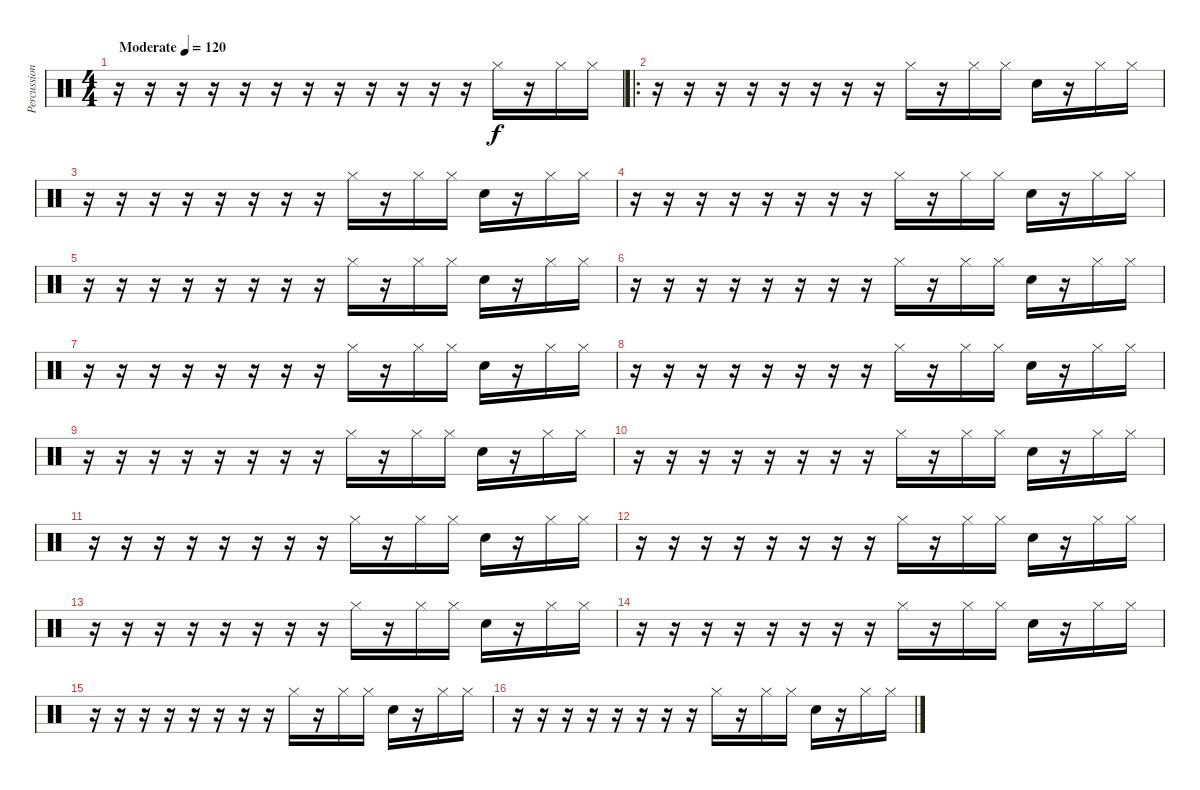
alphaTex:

\track ("Percussion" "Percussion") {instrument percussion bank 115}
\staff {score}
\articulation defaults
\ts (4 4)
\tempo (120 "Moderate")
\clef neutral
\ks c
r.16{dy f} r.16 r.16 r.16 r.16 r.16 r.16 r.16 r.16 r.16 r.16 r.16 "Hi-Hat (closed)".16 r.16 "Hi-Hat (closed)".16 "Hi-Hat (closed)".16 |
\ro
r.16 r.16 r.16 r.16 r.16 r.16 r.16 r.16 "Hi-Hat (closed)".16 r.16 "Hi-Hat (closed)".16 "Hi-Hat (closed)".16 "Snare (hit) 2".16 r.16 "Hi-Hat (closed)".16 "Hi-Hat (closed)".16 |
r.16 r.16 r.16 r.16 r.16 r.16 r.16 r.16 "Hi-Hat (closed)".16 r.16 "Hi-Hat (closed)".16 "Hi-Hat (closed)".16 "Snare (hit) 2".16 r.16 "Hi-Hat (closed)".16 "Hi-Hat (closed)".16 |
r.16 r.16 r.16 r.16 r.16 r.16 r.16 r.16 "Hi-Hat (closed)".16 r.16 "Hi-Hat (closed)".16 "Hi-Hat (closed)".16 "Snare (hit) 2".16 r.16 "Hi-Hat (closed)".16 "Hi-Hat (closed)".16 |
r.16 r.16 r.16 r.16 r.16 r.16 r.16 r.16 "Hi-Hat (closed)".16 r.16 "Hi-Hat (closed)".16 "Hi-Hat (closed)".16 "Snare (hit) 2".16 r.16 "Hi-Hat (closed)".16 "Hi-Hat (closed)".16 |
r.16 r.16 r.16 r.16 r.16 r.16 r.16 r.16 "Hi-Hat (closed)".16 r.16 "Hi-Hat (closed)".16 "Hi-Hat (closed)".16 "Snare (hit) 2".16 r.16 "Hi-Hat (closed)".16 "Hi-Hat (closed)".16 |
r.16 r.16 r.16 r.16 r.16 r.16 r.16 r.16 "Hi-Hat (closed)".16 r.16 "Hi-Hat (closed)".16 "Hi-Hat (closed)".16 "Snare (hit) 2".16 r.16 "Hi-Hat (closed)".16 "Hi-Hat (closed)".16 |
r.16 r.16 r.16 r.16 r.16 r.16 r.16 r.16 "Hi-Hat (closed)".16 r.16 "Hi-Hat (closed)".16 "Hi-Hat (closed)".16 "Snare (hit) 2".16 r.16 "Hi-Hat (closed)".16 "Hi-Hat (closed)".16 |
r.16 r.16 r.16 r.16 r.16 r.16 r.16 r.16 "Hi-Hat (closed)".16 r.16 "Hi-Hat (closed)".16 "Hi-Hat (closed)".16 "Snare (hit) 2".16 r.16 "Hi-Hat (closed)".16 "Hi-Hat (closed)".16 |
r.16 r.16 r.16 r.16 r.16 r.16 r.16 r.16 "Hi-Hat (closed)".16 r.16 "Hi-Hat (closed)".16 "Hi-Hat (closed)".16 "Snare (hit) 2".16 r.16 "Hi-Hat (closed)".16 "Hi-Hat (closed)".16 |
r.16 r.16 r.16 r.16 r.16 r.16 r.16 r.16 "Hi-Hat (closed)".16 r.16 "Hi-Hat (closed)".16 "Hi-Hat (closed)".16 "Snare (hit) 2".16 r.16 "Hi-Hat (closed)".16 "Hi-Hat (closed)".16 |
r.16 r.16 r.16 r.16 r.16 r.16 r.16 r.16 "Hi-Hat (closed)".16 r.16 "Hi-Hat (closed)".16 "Hi-Hat (closed)".16 "Snare (hit) 2".16 r.16 "Hi-Hat (closed)".16 "Hi-Hat (closed)".16 |
r.16 r.16 r.16 r.16 r.16 r.16 r.16 r.16 "Hi-Hat (closed)".16 r.16 "Hi-Hat (closed)".16 "Hi-Hat (closed)".16 "Snare (hit) 2".16 r.16 "Hi-Hat (closed)".16 "Hi-Hat (closed)".16 |
r.16 r.16 r.16 r.16 r.16 r.16 r.16 r.16 "Hi-Hat (closed)".16 r.16 "Hi-Hat (closed)".16 "Hi-Hat (closed)".16 "Snare (hit) 2".16 r.16 "Hi-Hat (closed)".16 "Hi-Hat (closed)".16 |
r.16 r.16 r.16 r.16 r.16 r.16 r.16 r.16 "Hi-Hat (closed)".16 r.16 "Hi-Hat (closed)".16 "Hi-Hat (closed)".16 "Snare (hit) 2".16 r.16 "Hi-Hat (closed)".16 "Hi-Hat (closed)".16 |
r.16 r.16 r.16 r.16 r.16 r.16 r.16 r.16 "Hi-Hat (closed)".16 r.16 "Hi-Hat (closed)".16 "Hi-Hat (closed)".16 "Snare (hit) 2".16 r.16 "Hi-Hat (closed)".16 "Hi-Hat (closed)".16
